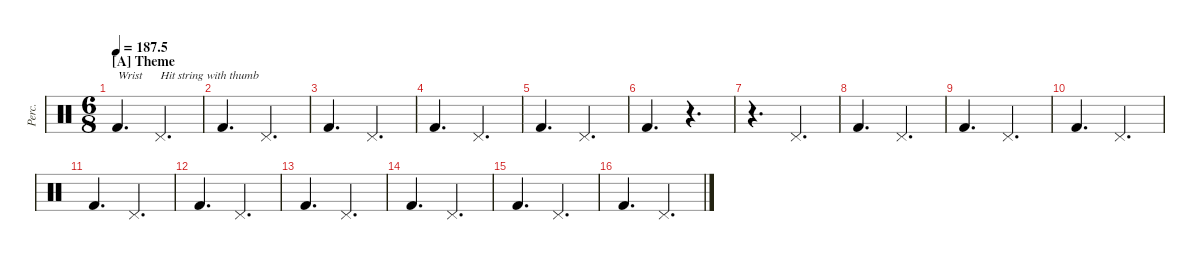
\defaultSystemsLayout 4
\hideDynamics
\bracketExtendMode groupsimilarinstruments
\otherSystemsTrackNameOrientation horizontal
\track ("Percussions" "Perc.") {instrument percussion}
\staff {score}
\articulation defaults
\ts (6 8)
\section ("A" "Theme")
\tempo
187.5
\accidentals auto
\clef neutral
\ottava regular
\simile none
\scale
0.5
\ks c "Kick (hit) 2".4{d txt "Wrist" dy mf beam Up} "Pedal Hi-Hat (hit)".4{d txt "Hit string with thumb" beam Up}
|
\scale
0.5 "Kick (hit) 2".4{d beam Up} "Pedal Hi-Hat (hit)".4{d beam Up} |
\scale
0.5 "Kick (hit) 2".4{d beam Up} "Pedal Hi-Hat (hit)".4{d beam Up} |
\scale
0.5 "Kick (hit) 2".4{d beam Up} "Pedal Hi-Hat (hit)".4{d beam Up} |
\scale
0.5 "Kick (hit) 2".4{d beam Up} "Pedal Hi-Hat (hit)".4{d beam Up} |
\scale
0.5 "Kick (hit) 2".4{d beam Up} r.4{d beam Up} |
\scale
0.5 r.4{d beam Down} "Pedal Hi-Hat (hit)".4{d beam Up} |
\scale
0.5 "Kick (hit) 2".4{d beam Up} "Pedal Hi-Hat (hit)".4{d beam Up} |
\scale
0.5 "Kick (hit) 2".4{d beam Up} "Pedal Hi-Hat (hit)".4{d beam Up} |
\scale
0.5 "Kick (hit) 2".4{d beam Up} "Pedal Hi-Hat (hit)".4{d beam Up} |
\scale
0.5 "Kick (hit) 2".4{d beam Up} "Pedal Hi-Hat (hit)".4{d beam Up} |
\scale
0.5 "Kick (hit) 2".4{d beam Up} "Pedal Hi-Hat (hit)".4{d beam Up} |
\scale
0.5 "Kick (hit) 2".4{d beam Up} "Pedal Hi-Hat (hit)".4{d beam Up} |
\scale
0.5 "Kick (hit) 2".4{d beam Up} "Pedal Hi-Hat (hit)".4{d beam Up} |
"Kick (hit) 2".4{d beam Up} "Pedal Hi-Hat (hit)".4{d beam Up} |
"Kick (hit) 2".4{d beam Up} "Pedal Hi-Hat (hit)".4{d beam Up}
